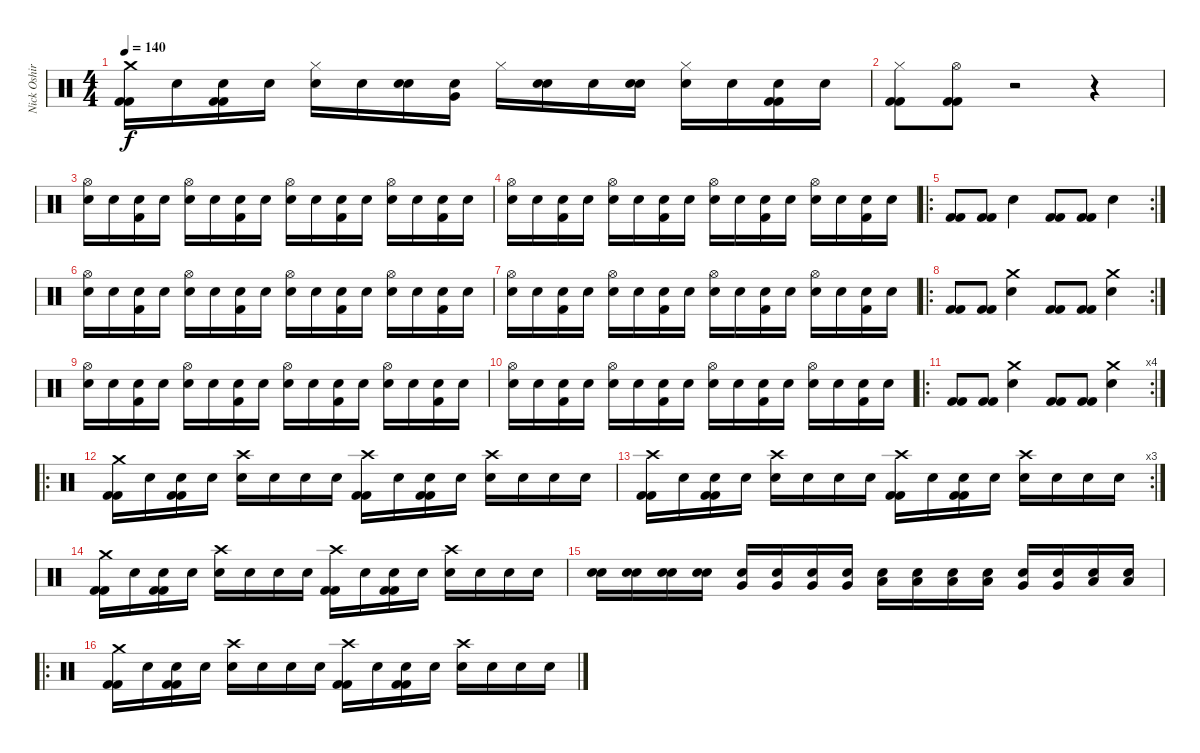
\track ("Nick Oshiro [drums]" "Nick Oshir") {instrument percussion}
\staff {score}
\articulation defaults
\ts (4 4)
\tempo 140
\clef neutral
\ks c
("Crash medium (hit)" "Kick (hit) 2" "Kick (hit) 2").16{dy f} "Snare (hit)".16 ("Snare (hit)" "Kick (hit) 2" "Kick (hit) 2").16 "Snare (hit)".16 ("Hi-Hat (closed)" "Electric Snare (hit)").16 "Snare (hit)".16 ("Snare (hit)" "Electric Snare (hit)").16 ("Snare (hit)" "Very Low Tom (hit)").16 "Hi-Hat (closed)".16 ("Snare (hit)" "Electric Snare (hit)").16 "Snare (hit)".16 ("Snare (hit)" "Electric Snare (hit)").16 ("Hi-Hat (closed)" "Electric Snare (hit)").16 "Snare (hit)".16 ("Snare (hit)" "Kick (hit) 2" "Kick (hit) 2").16 "Snare (hit)".16 |
("Hi-Hat (closed)" "Kick (hit) 2" "Kick (hit) 2").8 ("Hi-Hat (open)" "Kick (hit) 2" "Kick (hit) 2").8 r.2 r.4 |
("Hi-Hat (open)" "Electric Snare (hit)").16 "Snare (hit)".16 ("Snare (hit)" "Kick (hit) 2").16 "Snare (hit)".16 ("Hi-Hat (open)" "Electric Snare (hit)").16 "Snare (hit)".16 ("Snare (hit)" "Kick (hit) 2").16 "Snare (hit)".16 ("Hi-Hat (open)" "Electric Snare (hit)").16 "Snare (hit)".16 ("Snare (hit)" "Kick (hit) 2").16 "Snare (hit)".16 ("Hi-Hat (open)" "Electric Snare (hit)").16 "Snare (hit)".16 ("Snare (hit)" "Kick (hit) 2").16 "Snare (hit)".16 |
("Hi-Hat (open)" "Electric Snare (hit)").16 "Snare (hit)".16 ("Snare (hit)" "Kick (hit) 2").16 "Snare (hit)".16 ("Hi-Hat (open)" "Electric Snare (hit)").16 "Snare (hit)".16 ("Snare (hit)" "Kick (hit) 2").16 "Snare (hit)".16 ("Hi-Hat (open)" "Electric Snare (hit)").16 "Snare (hit)".16 ("Snare (hit)" "Kick (hit) 2").16 "Snare (hit)".16 ("Hi-Hat (open)" "Electric Snare (hit)").16 "Snare (hit)".16 ("Snare (hit)" "Kick (hit) 2").16 "Snare (hit)".16 |
\ro
\rc 2
("Kick (hit) 2" "Kick (hit) 2").8 ("Kick (hit) 2" "Kick (hit) 2").8 "Electric Snare (hit)".4 ("Kick (hit) 2" "Kick (hit) 2").8 ("Kick (hit) 2" "Kick (hit) 2").8 "Electric Snare (hit)".4 |
("Hi-Hat (open)" "Electric Snare (hit)").16 "Snare (hit)".16 ("Snare (hit)" "Kick (hit) 2").16 "Snare (hit)".16 ("Hi-Hat (open)" "Electric Snare (hit)").16 "Snare (hit)".16 ("Snare (hit)" "Kick (hit) 2").16 "Snare (hit)".16 ("Hi-Hat (open)" "Electric Snare (hit)").16 "Snare (hit)".16 ("Snare (hit)" "Kick (hit) 2").16 "Snare (hit)".16 ("Hi-Hat (open)" "Electric Snare (hit)").16 "Snare (hit)".16 ("Snare (hit)" "Kick (hit) 2").16 "Snare (hit)".16 |
("Hi-Hat (open)" "Electric Snare (hit)").16 "Snare (hit)".16 ("Snare (hit)" "Kick (hit) 2").16 "Snare (hit)".16 ("Hi-Hat (open)" "Electric Snare (hit)").16 "Snare (hit)".16 ("Snare (hit)" "Kick (hit) 2").16 "Snare (hit)".16 ("Hi-Hat (open)" "Electric Snare (hit)").16 "Snare (hit)".16 ("Snare (hit)" "Kick (hit) 2").16 "Snare (hit)".16 ("Hi-Hat (open)" "Electric Snare (hit)").16 "Snare (hit)".16 ("Snare (hit)" "Kick (hit) 2").16 "Snare (hit)".16 |
\ro
\rc 2
("Kick (hit) 2" "Kick (hit) 2").8 ("Kick (hit) 2" "Kick (hit) 2").8 ("Crash medium (hit)" "Electric Snare (hit)").4 ("Kick (hit) 2" "Kick (hit) 2").8 ("Kick (hit) 2" "Kick (hit) 2").8 ("Crash medium (hit)" "Electric Snare (hit)").4 |
("Hi-Hat (open)" "Electric Snare (hit)").16 "Snare (hit)".16 ("Snare (hit)" "Kick (hit) 2").16 "Snare (hit)".16 ("Hi-Hat (open)" "Electric Snare (hit)").16 "Snare (hit)".16 ("Snare (hit)" "Kick (hit) 2").16 "Snare (hit)".16 ("Hi-Hat (open)" "Electric Snare (hit)").16 "Snare (hit)".16 ("Snare (hit)" "Kick (hit) 2").16 "Snare (hit)".16 ("Hi-Hat (open)" "Electric Snare (hit)").16 "Snare (hit)".16 ("Snare (hit)" "Kick (hit) 2").16 "Snare (hit)".16 |
("Hi-Hat (open)" "Electric Snare (hit)").16 "Snare (hit)".16 ("Snare (hit)" "Kick (hit) 2").16 "Snare (hit)".16 ("Hi-Hat (open)" "Electric Snare (hit)").16 "Snare (hit)".16 ("Snare (hit)" "Kick (hit) 2").16 "Snare (hit)".16 ("Hi-Hat (open)" "Electric Snare (hit)").16 "Snare (hit)".16 ("Snare (hit)" "Kick (hit) 2").16 "Snare (hit)".16 ("Hi-Hat (open)" "Electric Snare (hit)").16 "Snare (hit)".16 ("Snare (hit)" "Kick (hit) 2").16 "Snare (hit)".16 |
\ro
\rc 4
("Kick (hit) 2" "Kick (hit) 2").8 ("Kick (hit) 2" "Kick (hit) 2").8 ("Crash medium (hit)" "Electric Snare (hit)").4 ("Kick (hit) 2" "Kick (hit) 2").8 ("Kick (hit) 2" "Kick (hit) 2").8 ("Crash medium (hit)" "Electric Snare (hit)").4 |
\ro
("Crash medium (hit)" "Kick (hit) 2" "Kick (hit) 2").16 "Snare (hit)".16 ("Snare (hit)" "Kick (hit) 2" "Kick (hit) 2").16 "Snare (hit)".16 ("Crash high (hit)" "Electric Snare (hit)").16 "Snare (hit)".16 "Snare (hit)".16 "Snare (hit)".16 ("Crash high (hit)" "Kick (hit) 2" "Kick (hit) 2").16 "Snare (hit)".16 ("Snare (hit)" "Kick (hit) 2" "Kick (hit) 2").16 "Snare (hit)".16 ("Crash high (hit)" "Electric Snare (hit)").16 "Snare (hit)".16 "Snare (hit)".16 "Snare (hit)".16 |
\rc 3
("Crash high (hit)" "Kick (hit) 2" "Kick (hit) 2").16 "Snare (hit)".16 ("Snare (hit)" "Kick (hit) 2" "Kick (hit) 2").16 "Snare (hit)".16 ("Crash high (hit)" "Electric Snare (hit)").16 "Snare (hit)".16 "Snare (hit)".16 "Snare (hit)".16 ("Crash high (hit)" "Kick (hit) 2" "Kick (hit) 2").16 "Snare (hit)".16 ("Snare (hit)" "Kick (hit) 2" "Kick (hit) 2").16 "Snare (hit)".16 ("Crash high (hit)" "Electric Snare (hit)").16 "Snare (hit)".16 "Snare (hit)".16 "Snare (hit)".16 |
("Crash medium (hit)" "Kick (hit) 2" "Kick (hit) 2").16 "Snare (hit)".16 ("Snare (hit)" "Kick (hit) 2" "Kick (hit) 2").16 "Snare (hit)".16 ("Crash high (hit)" "Electric Snare (hit)").16 "Snare (hit)".16 "Snare (hit)".16 "Snare (hit)".16 ("Crash high (hit)" "Kick (hit) 2" "Kick (hit) 2").16 "Snare (hit)".16 ("Snare (hit)" "Kick (hit) 2" "Kick (hit) 2").16 "Snare (hit)".16 ("Crash high (hit)" "Electric Snare (hit)").16 "Snare (hit)".16 "Snare (hit)".16 "Snare (hit)".16 |
("Snare (hit)" "Electric Snare (hit)").16 ("Snare (hit)" "Electric Snare (hit)").16 ("Snare (hit)" "Electric Snare (hit)").16 ("Snare (hit)" "Electric Snare (hit)").16 ("Snare (hit)" "Very Low Tom (hit)").16 ("Snare (hit)" "Very Low Tom (hit)").16 ("Snare (hit)" "Very Low Tom (hit)").16 ("Snare (hit)" "Very Low Tom (hit)").16 ("Snare (hit)" "Low Floor Tom (hit)").16 ("Snare (hit)" "Low Floor Tom (hit)").16 ("Snare (hit)" "Low Floor Tom (hit)").16 ("Snare (hit)" "Low Floor Tom (hit)").16 ("Snare (hit)" "Very Low Tom (hit)").16 ("Snare (hit)" "Very Low Tom (hit)").16 ("Snare (hit)" "Low Floor Tom (hit)").16 ("Snare (hit)" "Low Floor Tom (hit)").16 |
\ro
("Crash medium (hit)" "Kick (hit) 2" "Kick (hit) 2").16 "Snare (hit)".16 ("Snare (hit)" "Kick (hit) 2" "Kick (hit) 2").16 "Snare (hit)".16 ("Crash high (hit)" "Electric Snare (hit)").16 "Snare (hit)".16 "Snare (hit)".16 "Snare (hit)".16 ("Crash high (hit)" "Kick (hit) 2" "Kick (hit) 2").16 "Snare (hit)".16 ("Snare (hit)" "Kick (hit) 2" "Kick (hit) 2").16 "Snare (hit)".16 ("Crash high (hit)" "Electric Snare (hit)").16 "Snare (hit)".16 "Snare (hit)".16 "Snare (hit)".16
